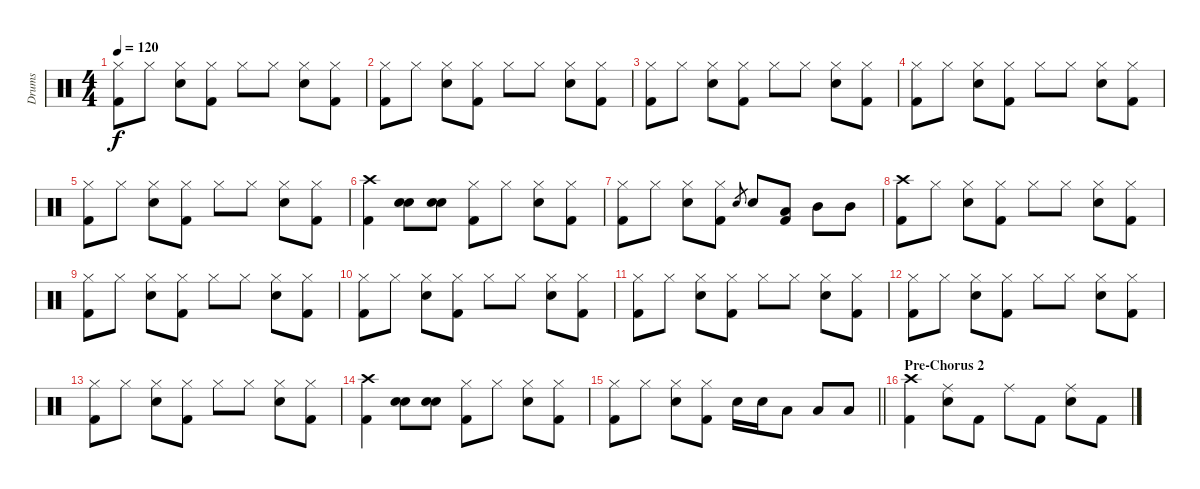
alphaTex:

\track ("Drums" "Drums") {instrument percussion}
\staff {score}
\articulation defaults
\ts (4 4)
\tempo 120
\clef neutral
\ks c
("Hi-Hat (closed)" "Kick (hit) 2").8{dy f} "Hi-Hat (closed)".8 ("Hi-Hat (closed)" "Snare (hit) 2").8 ("Hi-Hat (closed)" "Kick (hit) 2").8 "Hi-Hat (closed)".8 "Hi-Hat (closed)".8 ("Hi-Hat (closed)" "Snare (hit) 2").8 ("Hi-Hat (closed)" "Kick (hit) 2").8 |
("Hi-Hat (closed)" "Kick (hit) 2").8 "Hi-Hat (closed)".8 ("Hi-Hat (closed)" "Snare (hit) 2").8 ("Hi-Hat (closed)" "Kick (hit) 2").8 "Hi-Hat (closed)".8 "Hi-Hat (closed)".8 ("Hi-Hat (closed)" "Snare (hit) 2").8 ("Hi-Hat (closed)" "Kick (hit) 2").8 |
("Hi-Hat (closed)" "Kick (hit) 2").8 "Hi-Hat (closed)".8 ("Hi-Hat (closed)" "Snare (hit) 2").8 ("Hi-Hat (closed)" "Kick (hit) 2").8 "Hi-Hat (closed)".8 "Hi-Hat (closed)".8 ("Hi-Hat (closed)" "Snare (hit) 2").8 ("Hi-Hat (closed)" "Kick (hit) 2").8 |
("Hi-Hat (closed)" "Kick (hit) 2").8 "Hi-Hat (closed)".8 ("Hi-Hat (closed)" "Snare (hit) 2").8 ("Hi-Hat (closed)" "Kick (hit) 2").8 "Hi-Hat (closed)".8 "Hi-Hat (closed)".8 ("Hi-Hat (closed)" "Snare (hit) 2").8 ("Hi-Hat (closed)" "Kick (hit) 2").8 |
("Hi-Hat (closed)" "Kick (hit) 2").8 "Hi-Hat (closed)".8 ("Hi-Hat (closed)" "Snare (hit) 2").8 ("Hi-Hat (closed)" "Kick (hit) 2").8 "Hi-Hat (closed)".8 "Hi-Hat (closed)".8 ("Hi-Hat (closed)" "Snare (hit) 2").8 ("Hi-Hat (closed)" "Kick (hit) 2").8 |
("Crash high (hit)" "Kick (hit) 2").4 ("Snare (hit) 2" "Snare (hit) 2").8 ("Snare (hit) 2" "Snare (hit) 2").8 ("Hi-Hat (closed)" "Kick (hit) 2").8 "Hi-Hat (closed)".8 ("Hi-Hat (closed)" "Snare (hit) 2").8 ("Hi-Hat (closed)" "Kick (hit) 2").8 |
("Hi-Hat (closed)" "Kick (hit) 2").8 "Hi-Hat (closed)".8 ("Hi-Hat (closed)" "Snare (hit) 2").8 ("Hi-Hat (closed)" "Kick (hit) 2").8 "Snare (hit) 2".8{gr} "Snare (hit) 2".8 ("Low Tom (hit)" "Kick (hit) 2").8 "Mid Tom (hit)".8 "Mid Tom (hit)".8 |
("Crash high (hit)" "Kick (hit) 2").8 "Hi-Hat (closed)".8 ("Hi-Hat (closed)" "Snare (hit) 2").8 ("Hi-Hat (closed)" "Kick (hit) 2").8 "Hi-Hat (closed)".8 "Hi-Hat (closed)".8 ("Hi-Hat (closed)" "Snare (hit) 2").8 ("Hi-Hat (closed)" "Kick (hit) 2").8 |
("Hi-Hat (closed)" "Kick (hit) 2").8 "Hi-Hat (closed)".8 ("Hi-Hat (closed)" "Snare (hit) 2").8 ("Hi-Hat (closed)" "Kick (hit) 2").8 "Hi-Hat (closed)".8 "Hi-Hat (closed)".8 ("Hi-Hat (closed)" "Snare (hit) 2").8 ("Hi-Hat (closed)" "Kick (hit) 2").8 |
("Hi-Hat (closed)" "Kick (hit) 2").8 "Hi-Hat (closed)".8 ("Hi-Hat (closed)" "Snare (hit) 2").8 ("Hi-Hat (closed)" "Kick (hit) 2").8 "Hi-Hat (closed)".8 "Hi-Hat (closed)".8 ("Hi-Hat (closed)" "Snare (hit) 2").8 ("Hi-Hat (closed)" "Kick (hit) 2").8 |
("Hi-Hat (closed)" "Kick (hit) 2").8 "Hi-Hat (closed)".8 ("Hi-Hat (closed)" "Snare (hit) 2").8 ("Hi-Hat (closed)" "Kick (hit) 2").8 "Hi-Hat (closed)".8 "Hi-Hat (closed)".8 ("Hi-Hat (closed)" "Snare (hit) 2").8 ("Hi-Hat (closed)" "Kick (hit) 2").8 |
("Hi-Hat (closed)" "Kick (hit) 2").8 "Hi-Hat (closed)".8 ("Hi-Hat (closed)" "Snare (hit) 2").8 ("Hi-Hat (closed)" "Kick (hit) 2").8 "Hi-Hat (closed)".8 "Hi-Hat (closed)".8 ("Hi-Hat (closed)" "Snare (hit) 2").8 ("Hi-Hat (closed)" "Kick (hit) 2").8 |
("Hi-Hat (closed)" "Kick (hit) 2").8 "Hi-Hat (closed)".8 ("Hi-Hat (closed)" "Snare (hit) 2").8 ("Hi-Hat (closed)" "Kick (hit) 2").8 "Hi-Hat (closed)".8 "Hi-Hat (closed)".8 ("Hi-Hat (closed)" "Snare (hit) 2").8 ("Hi-Hat (closed)" "Kick (hit) 2").8 |
("Crash high (hit)" "Kick (hit) 2").4 ("Snare (hit) 2" "Snare (hit) 2").8 ("Snare (hit) 2" "Snare (hit) 2").8 ("Hi-Hat (closed)" "Kick (hit) 2").8 "Hi-Hat (closed)".8 ("Hi-Hat (closed)" "Snare (hit) 2").8 ("Hi-Hat (closed)" "Kick (hit) 2").8 |
\barLineRight lightlight
("Hi-Hat (closed)" "Kick (hit) 2").8 "Hi-Hat (closed)".8 ("Hi-Hat (closed)" "Snare (hit) 2").8 ("Hi-Hat (closed)" "Kick (hit) 2").8 "Snare (hit) 2".16 "Snare (hit) 2".16 "Low Tom (hit)".8 "Low Tom (hit)".8 "Low Tom (hit)".8 |
\section ("" "Pre-Chorus 2")
("Crash high (hit)" "Kick (hit) 2").4 ("Ride (middle)" "Snare (hit) 2").8 "Kick (hit) 2".8 "Ride (middle)".8 "Kick (hit) 2".8 ("Ride (middle)" "Snare (hit) 2").8 "Kick (hit) 2".8
